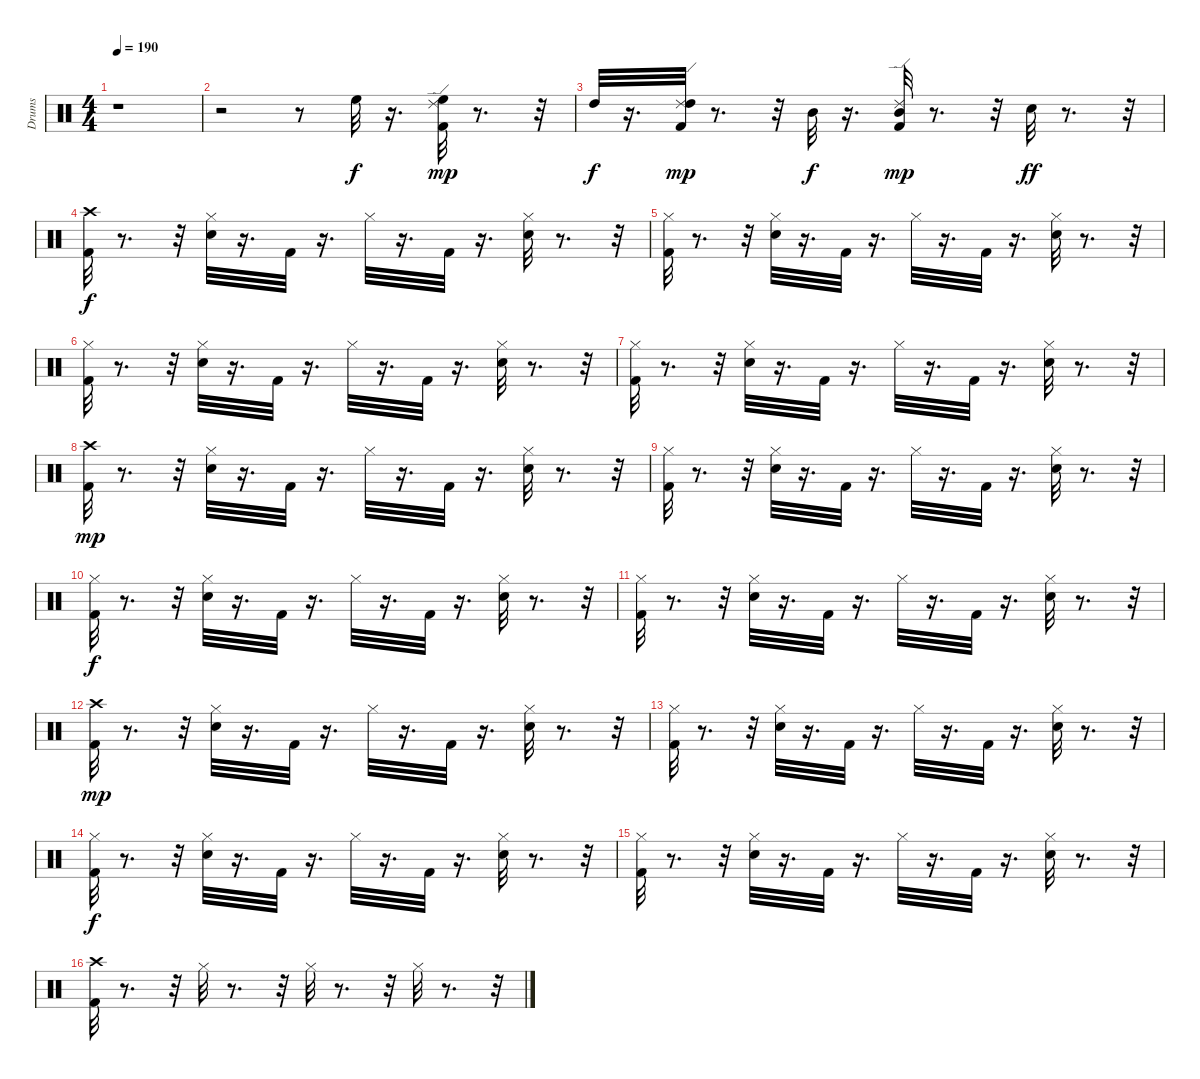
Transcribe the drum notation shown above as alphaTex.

\track ("Drums" "Drums") {instrument percussion}
\staff {score}
\articulation defaults
\ts (4 4)
\tempo 190
\clef neutral
\ks c
r.1{dy f} |
r.2 r.8 "High Floor Tom (hit)".32 r.16{d} ("Kick (hit) 2" "Ride (edge) 2" "High Floor Tom (hit)").32{dy mp} r.8{d} r.32 |
"High Tom (hit)".32{dy f} r.16{d} ("Kick (hit) 2" "Ride (edge) 2" "High Tom (hit)").32{dy mp} r.8{d} r.32 "Mid Tom (hit)".32{dy f} r.16{d} ("Kick (hit) 2" "Ride (edge) 2" "Mid Tom (hit)").32{dy mp} r.8{d} r.32 "Snare (hit) 2".32{dy ff} r.8{d} r.32 |
("Crash high (hit)" "Kick (hit) 2").32{dy f} r.8{d} r.32 ("Hi-Hat (closed)" "Snare (hit) 2").32 r.16{d} "Kick (hit) 2".32 r.16{d} "Hi-Hat (closed)".32 r.16{d} "Kick (hit) 2".32 r.16{d} ("Hi-Hat (closed)" "Snare (hit) 2").32 r.8{d} r.32 |
("Hi-Hat (closed)" "Kick (hit) 2").32 r.8{d} r.32 ("Snare (hit) 2" "Hi-Hat (closed)").32 r.16{d} "Kick (hit) 2".32 r.16{d} "Hi-Hat (closed)".32 r.16{d} "Kick (hit) 2".32 r.16{d} ("Snare (hit) 2" "Hi-Hat (closed)").32 r.8{d} r.32 |
("Kick (hit) 2" "Hi-Hat (closed)").32 r.8{d} r.32 ("Snare (hit) 2" "Hi-Hat (closed)").32 r.16{d} "Kick (hit) 2".32 r.16{d} "Hi-Hat (closed)".32 r.16{d} "Kick (hit) 2".32 r.16{d} ("Snare (hit) 2" "Hi-Hat (closed)").32 r.8{d} r.32 |
("Kick (hit) 2" "Hi-Hat (closed)").32 r.8{d} r.32 ("Snare (hit) 2" "Hi-Hat (closed)").32 r.16{d} "Kick (hit) 2".32 r.16{d} "Hi-Hat (closed)".32 r.16{d} "Kick (hit) 2".32 r.16{d} ("Snare (hit) 2" "Hi-Hat (closed)").32 r.8{d} r.32 |
("Crash high (hit)" "Kick (hit) 2").32{dy mp} r.8{d} r.32 ("Hi-Hat (closed)" "Snare (hit) 2").32 r.16{d} "Kick (hit) 2".32 r.16{d} "Hi-Hat (closed)".32 r.16{d} "Kick (hit) 2".32 r.16{d} ("Hi-Hat (closed)" "Snare (hit) 2").32 r.8{d} r.32 |
("Hi-Hat (closed)" "Kick (hit) 2").32 r.8{d} r.32 ("Hi-Hat (closed)" "Snare (hit) 2").32 r.16{d} "Kick (hit) 2".32 r.16{d} "Hi-Hat (closed)".32 r.16{d} "Kick (hit) 2".32 r.16{d} ("Hi-Hat (closed)" "Snare (hit) 2").32 r.8{d} r.32 |
("Kick (hit) 2" "Hi-Hat (closed)").32{dy f} r.8{d} r.32 ("Snare (hit) 2" "Hi-Hat (closed)").32 r.16{d} "Kick (hit) 2".32 r.16{d} "Hi-Hat (closed)".32 r.16{d} "Kick (hit) 2".32 r.16{d} ("Snare (hit) 2" "Hi-Hat (closed)").32 r.8{d} r.32 |
("Kick (hit) 2" "Hi-Hat (closed)").32 r.8{d} r.32 ("Snare (hit) 2" "Hi-Hat (closed)").32 r.16{d} "Kick (hit) 2".32 r.16{d} "Hi-Hat (closed)".32 r.16{d} "Kick (hit) 2".32 r.16{d} ("Snare (hit) 2" "Hi-Hat (closed)").32 r.8{d} r.32 |
("Crash high (hit)" "Kick (hit) 2").32{dy mp} r.8{d} r.32 ("Hi-Hat (closed)" "Snare (hit) 2").32 r.16{d} "Kick (hit) 2".32 r.16{d} "Hi-Hat (closed)".32 r.16{d} "Kick (hit) 2".32 r.16{d} ("Hi-Hat (closed)" "Snare (hit) 2").32 r.8{d} r.32 |
("Hi-Hat (closed)" "Kick (hit) 2").32 r.8{d} r.32 ("Hi-Hat (closed)" "Snare (hit) 2").32 r.16{d} "Kick (hit) 2".32 r.16{d} "Hi-Hat (closed)".32 r.16{d} "Kick (hit) 2".32 r.16{d} ("Hi-Hat (closed)" "Snare (hit) 2").32 r.8{d} r.32 |
("Kick (hit) 2" "Hi-Hat (closed)").32{dy f} r.8{d} r.32 ("Snare (hit) 2" "Hi-Hat (closed)").32 r.16{d} "Kick (hit) 2".32 r.16{d} "Hi-Hat (closed)".32 r.16{d} "Kick (hit) 2".32 r.16{d} ("Snare (hit) 2" "Hi-Hat (closed)").32 r.8{d} r.32 |
("Kick (hit) 2" "Hi-Hat (closed)").32 r.8{d} r.32 ("Snare (hit) 2" "Hi-Hat (closed)").32 r.16{d} "Kick (hit) 2".32 r.16{d} "Hi-Hat (closed)".32 r.16{d} "Kick (hit) 2".32 r.16{d} ("Snare (hit) 2" "Hi-Hat (closed)").32 r.8{d} r.32 |
("Crash high (hit)" "Kick (hit) 2").32 r.8{d} r.32 "Hi-Hat (closed)".32 r.8{d} r.32 "Hi-Hat (closed)".32 r.8{d} r.32 "Hi-Hat (closed)".32 r.8{d} r.32
